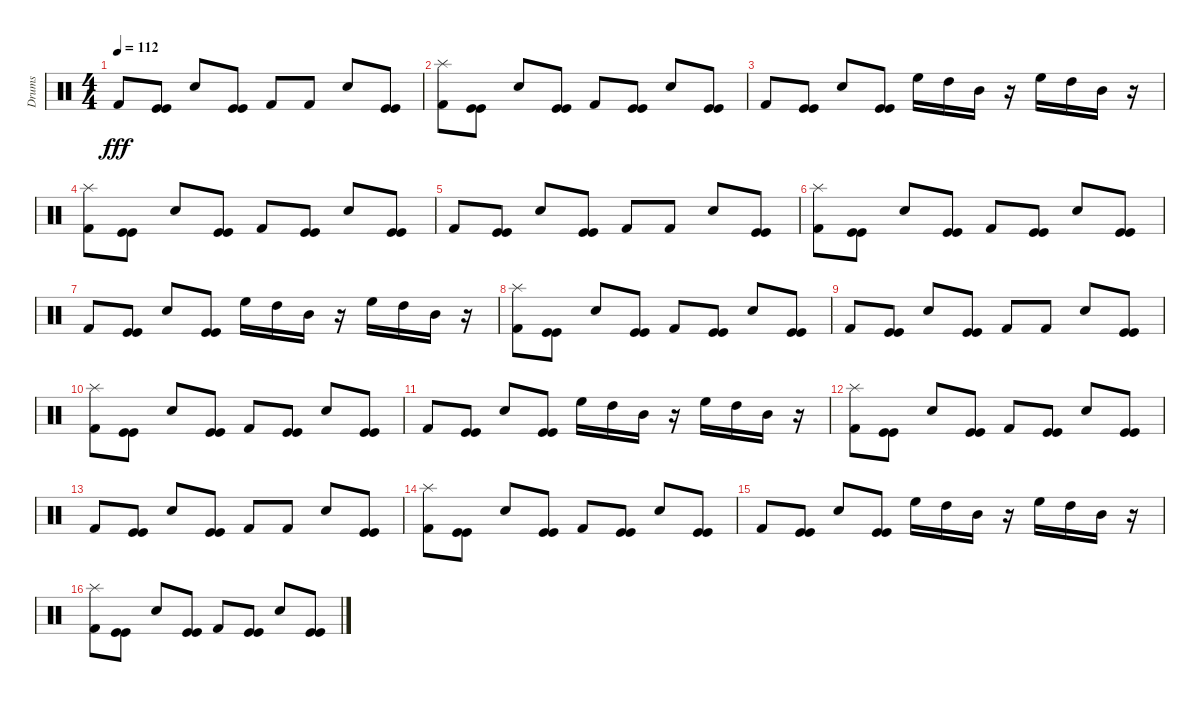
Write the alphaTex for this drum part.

\track ("Drums" "Drums") {instrument percussion}
\staff {score}
\articulation defaults
\ts (4 4)
\tempo 112
\clef neutral
\ks c "Kick (hit) 2".8{dy fff}
("Kick (hit)" "Kick (hit)").8 "Snare (hit) 2".8 ("Kick (hit)" "Kick (hit)").8 "Kick (hit) 2".8 "Kick (hit) 2".8 "Snare (hit) 2".8 ("Kick (hit)" "Kick (hit)").8 |
("Kick (hit) 2" "Splash (hit)").8 ("Kick (hit)" "Kick (hit)").8 "Snare (hit) 2".8 ("Kick (hit)" "Kick (hit)").8 "Kick (hit) 2".8 ("Kick (hit)" "Kick (hit)").8 "Snare (hit) 2".8 ("Kick (hit)" "Kick (hit)").8 |
"Kick (hit) 2".8 ("Kick (hit)" "Kick (hit)").8 "Snare (hit) 2".8 ("Kick (hit)" "Kick (hit)").8 "High Floor Tom (hit)".16 "High Tom (hit)".16 "Mid Tom (hit)".16 r.16 "High Floor Tom (hit)".16 "High Tom (hit)".16 "Mid Tom (hit)".16 r.16 |
("Kick (hit) 2" "Splash (hit)").8 ("Kick (hit)" "Kick (hit)").8 "Snare (hit) 2".8 ("Kick (hit)" "Kick (hit)").8 "Kick (hit) 2".8 ("Kick (hit)" "Kick (hit)").8 "Snare (hit) 2".8 ("Kick (hit)" "Kick (hit)").8 |
"Kick (hit) 2".8 ("Kick (hit)" "Kick (hit)").8 "Snare (hit) 2".8 ("Kick (hit)" "Kick (hit)").8 "Kick (hit) 2".8 "Kick (hit) 2".8 "Snare (hit) 2".8 ("Kick (hit)" "Kick (hit)").8 |
("Kick (hit) 2" "Splash (hit)").8 ("Kick (hit)" "Kick (hit)").8 "Snare (hit) 2".8 ("Kick (hit)" "Kick (hit)").8 "Kick (hit) 2".8 ("Kick (hit)" "Kick (hit)").8 "Snare (hit) 2".8 ("Kick (hit)" "Kick (hit)").8 |
"Kick (hit) 2".8 ("Kick (hit)" "Kick (hit)").8 "Snare (hit) 2".8 ("Kick (hit)" "Kick (hit)").8 "High Floor Tom (hit)".16 "High Tom (hit)".16 "Mid Tom (hit)".16 r.16 "High Floor Tom (hit)".16 "High Tom (hit)".16 "Mid Tom (hit)".16 r.16 |
("Kick (hit) 2" "Splash (hit)").8 ("Kick (hit)" "Kick (hit)").8 "Snare (hit) 2".8 ("Kick (hit)" "Kick (hit)").8 "Kick (hit) 2".8 ("Kick (hit)" "Kick (hit)").8 "Snare (hit) 2".8 ("Kick (hit)" "Kick (hit)").8 |
"Kick (hit) 2".8 ("Kick (hit)" "Kick (hit)").8 "Snare (hit) 2".8 ("Kick (hit)" "Kick (hit)").8 "Kick (hit) 2".8 "Kick (hit) 2".8 "Snare (hit) 2".8 ("Kick (hit)" "Kick (hit)").8 |
("Kick (hit) 2" "Splash (hit)").8 ("Kick (hit)" "Kick (hit)").8 "Snare (hit) 2".8 ("Kick (hit)" "Kick (hit)").8 "Kick (hit) 2".8 ("Kick (hit)" "Kick (hit)").8 "Snare (hit) 2".8 ("Kick (hit)" "Kick (hit)").8 |
"Kick (hit) 2".8 ("Kick (hit)" "Kick (hit)").8 "Snare (hit) 2".8 ("Kick (hit)" "Kick (hit)").8 "High Floor Tom (hit)".16 "High Tom (hit)".16 "Mid Tom (hit)".16 r.16 "High Floor Tom (hit)".16 "High Tom (hit)".16 "Mid Tom (hit)".16 r.16 |
("Kick (hit) 2" "Splash (hit)").8 ("Kick (hit)" "Kick (hit)").8 "Snare (hit) 2".8 ("Kick (hit)" "Kick (hit)").8 "Kick (hit) 2".8 ("Kick (hit)" "Kick (hit)").8 "Snare (hit) 2".8 ("Kick (hit)" "Kick (hit)").8 |
"Kick (hit) 2".8 ("Kick (hit)" "Kick (hit)").8 "Snare (hit) 2".8 ("Kick (hit)" "Kick (hit)").8 "Kick (hit) 2".8 "Kick (hit) 2".8 "Snare (hit) 2".8 ("Kick (hit)" "Kick (hit)").8 |
("Kick (hit) 2" "Splash (hit)").8 ("Kick (hit)" "Kick (hit)").8 "Snare (hit) 2".8 ("Kick (hit)" "Kick (hit)").8 "Kick (hit) 2".8 ("Kick (hit)" "Kick (hit)").8 "Snare (hit) 2".8 ("Kick (hit)" "Kick (hit)").8 |
"Kick (hit) 2".8 ("Kick (hit)" "Kick (hit)").8 "Snare (hit) 2".8 ("Kick (hit)" "Kick (hit)").8 "High Floor Tom (hit)".16 "High Tom (hit)".16 "Mid Tom (hit)".16 r.16 "High Floor Tom (hit)".16 "High Tom (hit)".16 "Mid Tom (hit)".16 r.16 |
("Kick (hit) 2" "Splash (hit)").8 ("Kick (hit)" "Kick (hit)").8 "Snare (hit) 2".8 ("Kick (hit)" "Kick (hit)").8 "Kick (hit) 2".8 ("Kick (hit)" "Kick (hit)").8 "Snare (hit) 2".8 ("Kick (hit)" "Kick (hit)").8
